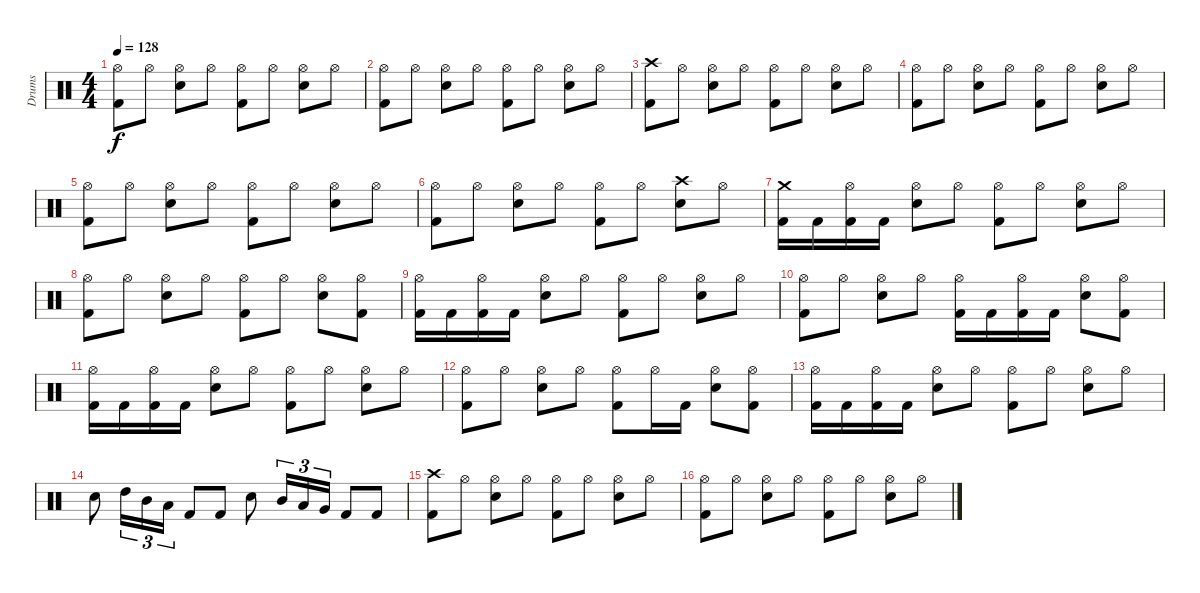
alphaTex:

\track ("Drums" "Drums") {instrument percussion}
\staff {score}
\articulation defaults
\ts (4 4)
\tempo 128
\clef neutral
\ks c
("Hi-Hat (open)" "Kick (hit) 2").8{dy f} "Hi-Hat (open)".8 ("Hi-Hat (open)" "Snare (hit) 2").8 "Hi-Hat (open)".8 ("Hi-Hat (open)" "Kick (hit) 2").8 "Hi-Hat (open)".8 ("Hi-Hat (open)" "Snare (hit) 2").8 "Hi-Hat (open)".8 |
("Hi-Hat (open)" "Kick (hit) 2").8 "Hi-Hat (open)".8 ("Hi-Hat (open)" "Snare (hit) 2").8 "Hi-Hat (open)".8 ("Hi-Hat (open)" "Kick (hit) 2").8 "Hi-Hat (open)".8 ("Hi-Hat (open)" "Snare (hit) 2").8 "Hi-Hat (open)".8 |
("Crash high (hit)" "Kick (hit) 2").8 "Hi-Hat (open)".8 ("Hi-Hat (open)" "Snare (hit) 2").8 "Hi-Hat (open)".8 ("Hi-Hat (open)" "Kick (hit) 2").8 "Hi-Hat (open)".8 ("Hi-Hat (open)" "Snare (hit) 2").8 "Hi-Hat (open)".8 |
("Hi-Hat (open)" "Kick (hit) 2").8 "Hi-Hat (open)".8 ("Hi-Hat (open)" "Snare (hit) 2").8 "Hi-Hat (open)".8 ("Hi-Hat (open)" "Kick (hit) 2").8 "Hi-Hat (open)".8 ("Hi-Hat (open)" "Snare (hit) 2").8 "Hi-Hat (open)".8 |
("Hi-Hat (open)" "Kick (hit) 2").8 "Hi-Hat (open)".8 ("Hi-Hat (open)" "Snare (hit) 2").8 "Hi-Hat (open)".8 ("Hi-Hat (open)" "Kick (hit) 2").8 "Hi-Hat (open)".8 ("Hi-Hat (open)" "Snare (hit) 2").8 "Hi-Hat (open)".8 |
("Hi-Hat (open)" "Kick (hit) 2").8 "Hi-Hat (open)".8 ("Hi-Hat (open)" "Snare (hit) 2").8 "Hi-Hat (open)".8 ("Hi-Hat (open)" "Kick (hit) 2").8 "Hi-Hat (open)".8 ("Crash high (hit)" "Snare (hit) 2").8 "Hi-Hat (open)".8 |
("Crash medium (hit)" "Kick (hit) 2").16 "Kick (hit) 2".16 ("Hi-Hat (open)" "Kick (hit) 2").16 "Kick (hit) 2".16 ("Hi-Hat (open)" "Snare (hit) 2").8 "Hi-Hat (open)".8 ("Hi-Hat (open)" "Kick (hit) 2").8 "Hi-Hat (open)".8 ("Hi-Hat (open)" "Snare (hit) 2").8 "Hi-Hat (open)".8 |
("Hi-Hat (open)" "Kick (hit) 2").8 "Hi-Hat (open)".8 ("Hi-Hat (open)" "Snare (hit) 2").8 "Hi-Hat (open)".8 ("Hi-Hat (open)" "Kick (hit) 2").8 "Hi-Hat (open)".8 ("Hi-Hat (open)" "Snare (hit) 2").8 ("Hi-Hat (open)" "Kick (hit) 2").8 |
("Hi-Hat (open)" "Kick (hit) 2").16 "Kick (hit) 2".16 ("Hi-Hat (open)" "Kick (hit) 2").16 "Kick (hit) 2".16 ("Hi-Hat (open)" "Snare (hit) 2").8 "Hi-Hat (open)".8 ("Hi-Hat (open)" "Kick (hit) 2").8 "Hi-Hat (open)".8 ("Hi-Hat (open)" "Snare (hit) 2").8 "Hi-Hat (open)".8 |
("Hi-Hat (open)" "Kick (hit) 2").8 "Hi-Hat (open)".8 ("Hi-Hat (open)" "Snare (hit) 2").8 "Hi-Hat (open)".8 ("Hi-Hat (open)" "Kick (hit) 2").16 "Kick (hit) 2".16 ("Hi-Hat (open)" "Kick (hit) 2").16 "Kick (hit) 2".16 ("Hi-Hat (open)" "Snare (hit) 2").8 ("Hi-Hat (open)" "Kick (hit) 2").8 |
("Hi-Hat (open)" "Kick (hit) 2").16 "Kick (hit) 2".16 ("Hi-Hat (open)" "Kick (hit) 2").16 "Kick (hit) 2".16 ("Hi-Hat (open)" "Snare (hit) 2").8 "Hi-Hat (open)".8 ("Hi-Hat (open)" "Kick (hit) 2").8 "Hi-Hat (open)".8 ("Hi-Hat (open)" "Snare (hit) 2").8 "Hi-Hat (open)".8 |
("Hi-Hat (open)" "Kick (hit) 2").8 "Hi-Hat (open)".8 ("Hi-Hat (open)" "Snare (hit) 2").8 "Hi-Hat (open)".8 ("Hi-Hat (open)" "Kick (hit) 2").8 "Hi-Hat (open)".16 "Kick (hit) 2".16 ("Hi-Hat (open)" "Snare (hit) 2").8 ("Hi-Hat (open)" "Kick (hit) 2").8 |
("Hi-Hat (open)" "Kick (hit) 2").16 "Kick (hit) 2".16 ("Hi-Hat (open)" "Kick (hit) 2").16 "Kick (hit) 2".16 ("Hi-Hat (open)" "Snare (hit) 2").8 "Hi-Hat (open)".8 ("Hi-Hat (open)" "Kick (hit) 2").8 "Hi-Hat (open)".8 ("Hi-Hat (open)" "Snare (hit) 2").8 "Hi-Hat (open)".8 |
"Snare (hit) 2".8 "High Tom (hit)".16{tu (3 2)} "Mid Tom (hit)".16{tu (3 2)} "Low Tom (hit)".16{tu (3 2)} "Kick (hit) 2".8 "Kick (hit) 2".8 "Snare (hit) 2".8 "Mid Tom (hit)".16{tu (3 2)} "Low Tom (hit)".16{tu (3 2)} "Very Low Tom (hit)".16{tu (3 2)} "Kick (hit) 2".8 "Kick (hit) 2".8 |
("Crash high (hit)" "Kick (hit) 2").8 "Hi-Hat (open)".8 ("Hi-Hat (open)" "Snare (hit) 2").8 "Hi-Hat (open)".8 ("Hi-Hat (open)" "Kick (hit) 2").8 "Hi-Hat (open)".8 ("Hi-Hat (open)" "Snare (hit) 2").8 "Hi-Hat (open)".8 |
("Hi-Hat (open)" "Kick (hit) 2").8 "Hi-Hat (open)".8 ("Hi-Hat (open)" "Snare (hit) 2").8 "Hi-Hat (open)".8 ("Hi-Hat (open)" "Kick (hit) 2").8 "Hi-Hat (open)".8 ("Hi-Hat (open)" "Snare (hit) 2").8 "Hi-Hat (open)".8
